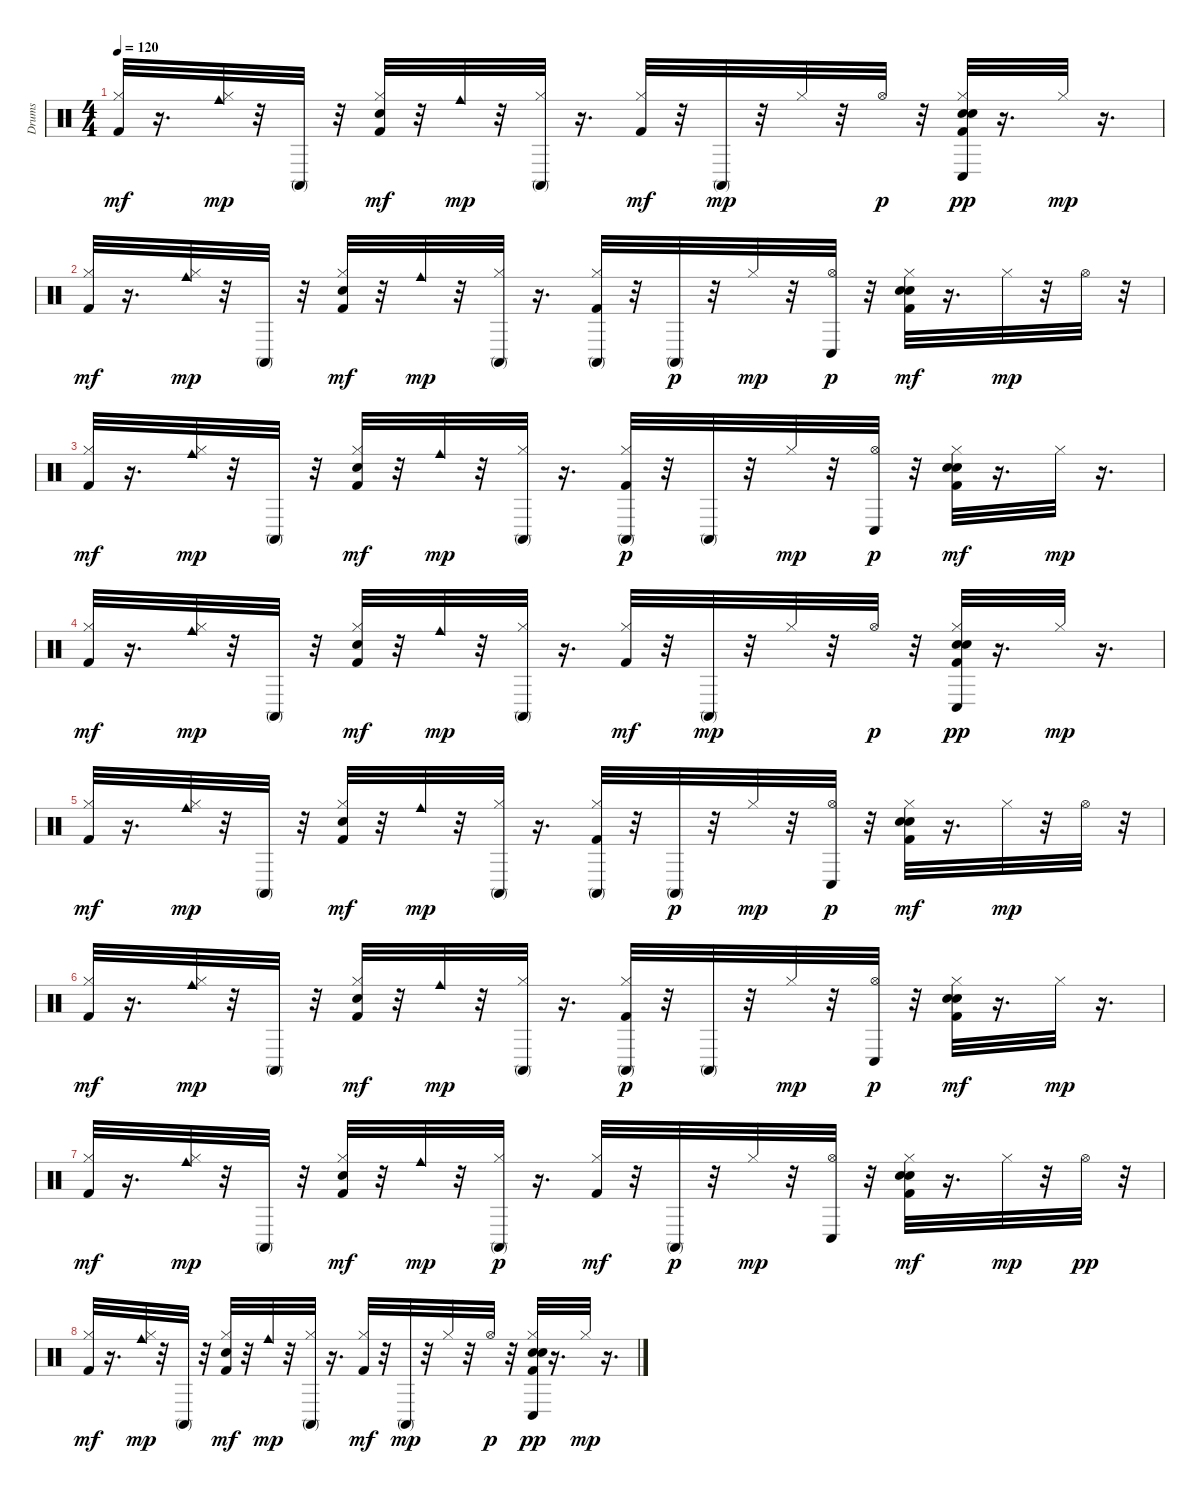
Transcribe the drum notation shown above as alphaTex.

\track ("Drums" "Drums") {instrument percussion}
\staff {score}
\articulation defaults
\ts (4 4)
\tempo 120
\clef neutral
\ks c
("Hi-Hat (closed)" "Kick (hit) 2").32{dy mf} r.16{d} ("Hi-Hat (closed)" "Cowbell medium (hit)").32{dy mp} r.32 "Conga high (mute)".32 r.32 ("Hi-Hat (closed)" "Electric Snare (hit)" "Kick (hit) 2").32{dy mf} r.32 "Cowbell medium (hit)".32{dy mp} r.32 ("Hi-Hat (closed)" "Conga high (mute)").32 r.16{d} ("Hi-Hat (closed)" "Kick (hit) 2").32{dy mf} r.32 "Conga high (mute)".32{dy mp} r.32 "Hi-Hat (closed)".32 r.32 "Hi-Hat (open)".32{dy p} r.32 ("Hi-Hat (closed)" "Kick (hit) 2" "Hand Clap (hit)" "Electric Snare (hit)" "Conga low (hit)").32{dy pp} r.16{d} "Hi-Hat (closed)".32{dy mp} r.16{d} |
("Hi-Hat (closed)" "Kick (hit) 2").32{dy mf} r.16{d} ("Hi-Hat (closed)" "Cowbell medium (hit)").32{dy mp} r.32 "Conga high (mute)".32 r.32 ("Hi-Hat (closed)" "Electric Snare (hit)" "Kick (hit) 2").32{dy mf} r.32 "Cowbell medium (hit)".32{dy mp} r.32 ("Hi-Hat (closed)" "Conga high (mute)").32 r.16{d} ("Hi-Hat (closed)" "Kick (hit) 2" "Conga high (mute)").32 r.32 "Conga high (mute)".32{dy p} r.32 "Hi-Hat (closed)".32{dy mp} r.32 ("Hi-Hat (open)" "Conga low (hit)").32{dy p} r.32 ("Kick (hit) 2" "Hi-Hat (closed)" "Electric Snare (hit)" "Hand Clap (hit)").32{dy mf} r.16{d} "Hi-Hat (closed)".32{dy mp} r.32 "Hi-Hat (open)".32 r.32 |
("Hi-Hat (closed)" "Kick (hit) 2").32{dy mf} r.16{d} ("Hi-Hat (closed)" "Cowbell medium (hit)").32{dy mp} r.32 "Conga high (mute)".32 r.32 ("Hi-Hat (closed)" "Electric Snare (hit)" "Kick (hit) 2").32{dy mf} r.32 "Cowbell medium (hit)".32{dy mp} r.32 ("Hi-Hat (closed)" "Conga high (mute)").32 r.16{d} ("Kick (hit) 2" "Hi-Hat (closed)" "Conga high (mute)").32{dy p} r.32 "Conga high (mute)".32 r.32 "Hi-Hat (closed)".32{dy mp} r.32 ("Hi-Hat (open)" "Conga low (hit)").32{dy p} r.32 ("Hi-Hat (closed)" "Hand Clap (hit)" "Electric Snare (hit)" "Kick (hit) 2").32{dy mf} r.16{d} "Hi-Hat (closed)".32{dy mp} r.16{d} |
("Hi-Hat (closed)" "Kick (hit) 2").32{dy mf} r.16{d} ("Hi-Hat (closed)" "Cowbell medium (hit)").32{dy mp} r.32 "Conga high (mute)".32 r.32 ("Hi-Hat (closed)" "Electric Snare (hit)" "Kick (hit) 2").32{dy mf} r.32 "Cowbell medium (hit)".32{dy mp} r.32 ("Hi-Hat (closed)" "Conga high (mute)").32 r.16{d} ("Hi-Hat (closed)" "Kick (hit) 2").32{dy mf} r.32 "Conga high (mute)".32{dy mp} r.32 "Hi-Hat (closed)".32 r.32 "Hi-Hat (open)".32{dy p} r.32 ("Hi-Hat (closed)" "Kick (hit) 2" "Hand Clap (hit)" "Electric Snare (hit)" "Conga low (hit)").32{dy pp} r.16{d} "Hi-Hat (closed)".32{dy mp} r.16{d} |
("Hi-Hat (closed)" "Kick (hit) 2").32{dy mf} r.16{d} ("Hi-Hat (closed)" "Cowbell medium (hit)").32{dy mp} r.32 "Conga high (mute)".32 r.32 ("Hi-Hat (closed)" "Electric Snare (hit)" "Kick (hit) 2").32{dy mf} r.32 "Cowbell medium (hit)".32{dy mp} r.32 ("Hi-Hat (closed)" "Conga high (mute)").32 r.16{d} ("Hi-Hat (closed)" "Kick (hit) 2" "Conga high (mute)").32 r.32 "Conga high (mute)".32{dy p} r.32 "Hi-Hat (closed)".32{dy mp} r.32 ("Hi-Hat (open)" "Conga low (hit)").32{dy p} r.32 ("Kick (hit) 2" "Hi-Hat (closed)" "Electric Snare (hit)" "Hand Clap (hit)").32{dy mf} r.16{d} "Hi-Hat (closed)".32{dy mp} r.32 "Hi-Hat (open)".32 r.32 |
("Hi-Hat (closed)" "Kick (hit) 2").32{dy mf} r.16{d} ("Hi-Hat (closed)" "Cowbell medium (hit)").32{dy mp} r.32 "Conga high (mute)".32 r.32 ("Hi-Hat (closed)" "Electric Snare (hit)" "Kick (hit) 2").32{dy mf} r.32 "Cowbell medium (hit)".32{dy mp} r.32 ("Hi-Hat (closed)" "Conga high (mute)").32 r.16{d} ("Kick (hit) 2" "Hi-Hat (closed)" "Conga high (mute)").32{dy p} r.32 "Conga high (mute)".32 r.32 "Hi-Hat (closed)".32{dy mp} r.32 ("Hi-Hat (open)" "Conga low (hit)").32{dy p} r.32 ("Hi-Hat (closed)" "Hand Clap (hit)" "Electric Snare (hit)" "Kick (hit) 2").32{dy mf} r.16{d} "Hi-Hat (closed)".32{dy mp} r.16{d} |
("Hi-Hat (closed)" "Kick (hit) 2").32{dy mf} r.16{d} ("Hi-Hat (closed)" "Cowbell medium (hit)").32{dy mp} r.32 "Conga high (mute)".32 r.32 ("Hi-Hat (closed)" "Electric Snare (hit)" "Kick (hit) 2").32{dy mf} r.32 "Cowbell medium (hit)".32{dy mp} r.32 ("Hi-Hat (closed)" "Conga high (mute)").32{dy p} r.16{d} ("Hi-Hat (closed)" "Kick (hit) 2").32{dy mf} r.32 "Conga high (mute)".32{dy p} r.32 "Hi-Hat (closed)".32{dy mp} r.32 ("Hi-Hat (open)" "Conga low (hit)").32 r.32 ("Kick (hit) 2" "Hi-Hat (closed)" "Electric Snare (hit)" "Hand Clap (hit)").32{dy mf} r.16{d} "Hi-Hat (closed)".32{dy mp} r.32 "Hi-Hat (open)".32{dy pp} r.32 |
("Hi-Hat (closed)" "Kick (hit) 2").32{dy mf} r.16{d} ("Hi-Hat (closed)" "Cowbell medium (hit)").32{dy mp} r.32 "Conga high (mute)".32 r.32 ("Hi-Hat (closed)" "Electric Snare (hit)" "Kick (hit) 2").32{dy mf} r.32 "Cowbell medium (hit)".32{dy mp} r.32 ("Hi-Hat (closed)" "Conga high (mute)").32 r.16{d} ("Hi-Hat (closed)" "Kick (hit) 2").32{dy mf} r.32 "Conga high (mute)".32{dy mp} r.32 "Hi-Hat (closed)".32 r.32 "Hi-Hat (open)".32{dy p} r.32 ("Hi-Hat (closed)" "Kick (hit) 2" "Hand Clap (hit)" "Electric Snare (hit)" "Conga low (hit)").32{dy pp} r.16{d} "Hi-Hat (closed)".32{dy mp} r.16{d}
